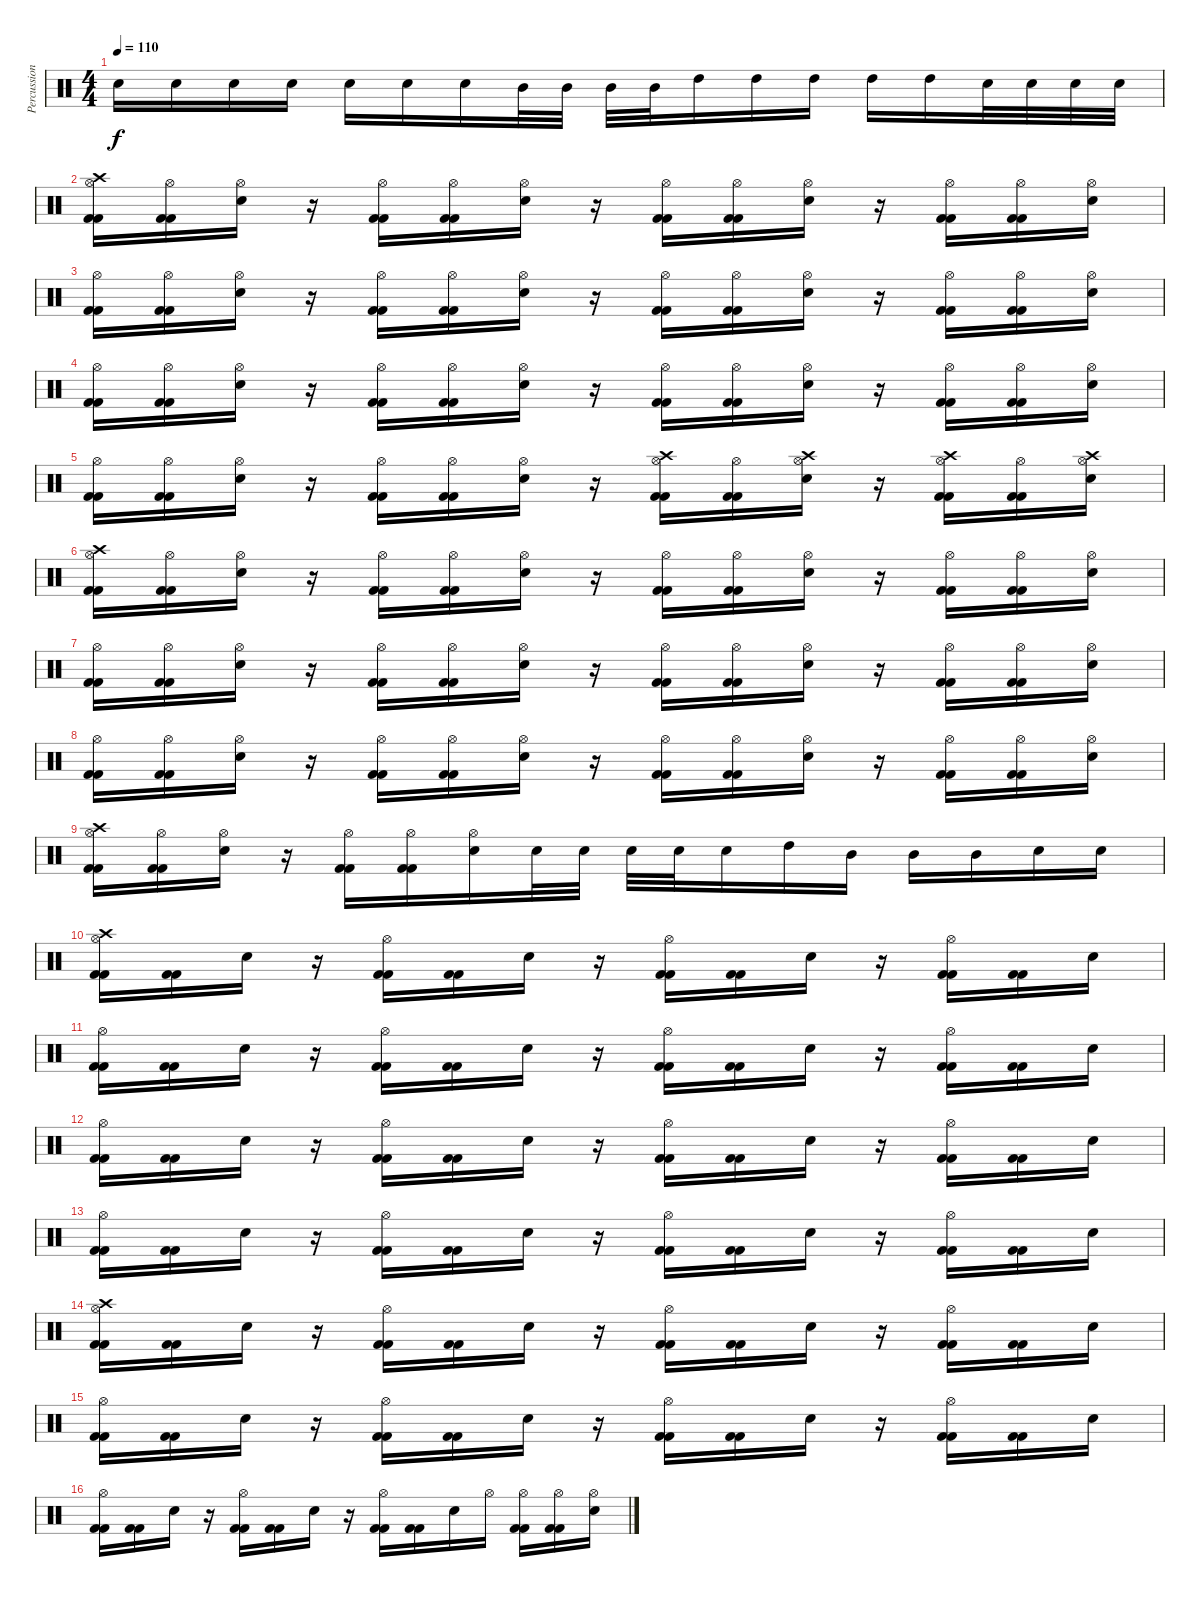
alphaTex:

\track ("Percussions" "Percussion") {instrument percussion}
\staff {score}
\articulation defaults
\ts (4 4)
\tempo 110
\clef neutral
\ks c "Snare (hit) 2".16{dy f volume 16} "Snare (hit) 2".16 "Snare (hit) 2".16 "Snare (hit) 2".16 "Snare (hit) 2".16 "Snare (hit) 2".16 "Snare (hit) 2".16 "Mid Tom (hit)".32 "Mid Tom (hit)".32 "Mid Tom (hit)".32 "Mid Tom (hit)".32 "High Tom (hit)".16 "High Tom (hit)".16 "High Tom (hit)".16 "High Tom (hit)".16 "High Tom (hit)".16 "Snare (hit) 2".32 "Snare (hit) 2".32 "Snare (hit) 2".32 "Snare (hit) 2".32
|
("Crash high (hit)" "Hi-Hat (open)" "Kick (hit) 2" "Kick (hit) 2").16 ("Hi-Hat (open)" "Kick (hit) 2" "Kick (hit) 2").16 ("Hi-Hat (open)" "Snare (hit) 2").16 r.16 ("Hi-Hat (open)" "Kick (hit) 2" "Kick (hit) 2").16 ("Hi-Hat (open)" "Kick (hit) 2" "Kick (hit) 2").16 ("Hi-Hat (open)" "Snare (hit) 2").16 r.16 ("Hi-Hat (open)" "Kick (hit) 2" "Kick (hit) 2").16 ("Hi-Hat (open)" "Kick (hit) 2" "Kick (hit) 2").16 ("Hi-Hat (open)" "Snare (hit) 2").16 r.16 ("Hi-Hat (open)" "Kick (hit) 2" "Kick (hit) 2").16 ("Hi-Hat (open)" "Kick (hit) 2" "Kick (hit) 2").16 ("Hi-Hat (open)" "Snare (hit) 2").16 |
("Hi-Hat (open)" "Kick (hit) 2" "Kick (hit) 2").16 ("Hi-Hat (open)" "Kick (hit) 2" "Kick (hit) 2").16 ("Hi-Hat (open)" "Snare (hit) 2").16 r.16 ("Hi-Hat (open)" "Kick (hit) 2" "Kick (hit) 2").16 ("Hi-Hat (open)" "Kick (hit) 2" "Kick (hit) 2").16 ("Hi-Hat (open)" "Snare (hit) 2").16 r.16 ("Hi-Hat (open)" "Kick (hit) 2" "Kick (hit) 2").16 ("Hi-Hat (open)" "Kick (hit) 2" "Kick (hit) 2").16 ("Hi-Hat (open)" "Snare (hit) 2").16 r.16 ("Hi-Hat (open)" "Kick (hit) 2" "Kick (hit) 2").16 ("Hi-Hat (open)" "Kick (hit) 2" "Kick (hit) 2").16 ("Hi-Hat (open)" "Snare (hit) 2").16 |
("Hi-Hat (open)" "Kick (hit) 2" "Kick (hit) 2").16 ("Hi-Hat (open)" "Kick (hit) 2" "Kick (hit) 2").16 ("Hi-Hat (open)" "Snare (hit) 2").16 r.16 ("Hi-Hat (open)" "Kick (hit) 2" "Kick (hit) 2").16 ("Hi-Hat (open)" "Kick (hit) 2" "Kick (hit) 2").16 ("Hi-Hat (open)" "Snare (hit) 2").16 r.16 ("Hi-Hat (open)" "Kick (hit) 2" "Kick (hit) 2").16 ("Hi-Hat (open)" "Kick (hit) 2" "Kick (hit) 2").16 ("Hi-Hat (open)" "Snare (hit) 2").16 r.16 ("Hi-Hat (open)" "Kick (hit) 2" "Kick (hit) 2").16 ("Hi-Hat (open)" "Kick (hit) 2" "Kick (hit) 2").16 ("Hi-Hat (open)" "Snare (hit) 2").16 |
("Hi-Hat (open)" "Kick (hit) 2" "Kick (hit) 2").16 ("Hi-Hat (open)" "Kick (hit) 2" "Kick (hit) 2").16 ("Hi-Hat (open)" "Snare (hit) 2").16 r.16 ("Hi-Hat (open)" "Kick (hit) 2" "Kick (hit) 2").16 ("Hi-Hat (open)" "Kick (hit) 2" "Kick (hit) 2").16 ("Hi-Hat (open)" "Snare (hit) 2").16 r.16 ("Crash high (hit)" "Hi-Hat (open)" "Kick (hit) 2" "Kick (hit) 2").16 ("Hi-Hat (open)" "Kick (hit) 2" "Kick (hit) 2").16 ("Crash high (hit)" "Hi-Hat (open)" "Snare (hit) 2").16 r.16 ("Crash high (hit)" "Hi-Hat (open)" "Kick (hit) 2" "Kick (hit) 2").16 ("Hi-Hat (open)" "Kick (hit) 2" "Kick (hit) 2").16 ("Crash high (hit)" "Hi-Hat (open)" "Snare (hit) 2").16 |
("Crash high (hit)" "Hi-Hat (open)" "Kick (hit) 2" "Kick (hit) 2").16 ("Hi-Hat (open)" "Kick (hit) 2" "Kick (hit) 2").16 ("Hi-Hat (open)" "Snare (hit) 2").16 r.16 ("Hi-Hat (open)" "Kick (hit) 2" "Kick (hit) 2").16 ("Hi-Hat (open)" "Kick (hit) 2" "Kick (hit) 2").16 ("Hi-Hat (open)" "Snare (hit) 2").16 r.16 ("Hi-Hat (open)" "Kick (hit) 2" "Kick (hit) 2").16 ("Hi-Hat (open)" "Kick (hit) 2" "Kick (hit) 2").16 ("Hi-Hat (open)" "Snare (hit) 2").16 r.16 ("Hi-Hat (open)" "Kick (hit) 2" "Kick (hit) 2").16 ("Hi-Hat (open)" "Kick (hit) 2" "Kick (hit) 2").16 ("Hi-Hat (open)" "Snare (hit) 2").16 |
("Hi-Hat (open)" "Kick (hit) 2" "Kick (hit) 2").16 ("Hi-Hat (open)" "Kick (hit) 2" "Kick (hit) 2").16 ("Hi-Hat (open)" "Snare (hit) 2").16 r.16 ("Hi-Hat (open)" "Kick (hit) 2" "Kick (hit) 2").16 ("Hi-Hat (open)" "Kick (hit) 2" "Kick (hit) 2").16 ("Hi-Hat (open)" "Snare (hit) 2").16 r.16 ("Hi-Hat (open)" "Kick (hit) 2" "Kick (hit) 2").16 ("Hi-Hat (open)" "Kick (hit) 2" "Kick (hit) 2").16 ("Hi-Hat (open)" "Snare (hit) 2").16 r.16 ("Hi-Hat (open)" "Kick (hit) 2" "Kick (hit) 2").16 ("Hi-Hat (open)" "Kick (hit) 2" "Kick (hit) 2").16 ("Hi-Hat (open)" "Snare (hit) 2").16 |
("Hi-Hat (open)" "Kick (hit) 2" "Kick (hit) 2").16 ("Hi-Hat (open)" "Kick (hit) 2" "Kick (hit) 2").16 ("Hi-Hat (open)" "Snare (hit) 2").16 r.16 ("Hi-Hat (open)" "Kick (hit) 2" "Kick (hit) 2").16 ("Hi-Hat (open)" "Kick (hit) 2" "Kick (hit) 2").16 ("Hi-Hat (open)" "Snare (hit) 2").16 r.16 ("Hi-Hat (open)" "Kick (hit) 2" "Kick (hit) 2").16 ("Hi-Hat (open)" "Kick (hit) 2" "Kick (hit) 2").16 ("Hi-Hat (open)" "Snare (hit) 2").16 r.16 ("Hi-Hat (open)" "Kick (hit) 2" "Kick (hit) 2").16 ("Hi-Hat (open)" "Kick (hit) 2" "Kick (hit) 2").16 ("Hi-Hat (open)" "Snare (hit) 2").16 |
("Crash high (hit)" "Hi-Hat (open)" "Kick (hit) 2" "Kick (hit) 2").16 ("Hi-Hat (open)" "Kick (hit) 2" "Kick (hit) 2").16 ("Hi-Hat (open)" "Snare (hit) 2").16 r.16 ("Hi-Hat (open)" "Kick (hit) 2" "Kick (hit) 2").16 ("Hi-Hat (open)" "Kick (hit) 2" "Kick (hit) 2").16 ("Hi-Hat (open)" "Snare (hit) 2").16 "Snare (hit) 2".32 "Snare (hit) 2".32 "Snare (hit) 2".32 "Snare (hit) 2".32 "Snare (hit) 2".16 "High Tom (hit)".16 "Mid Tom (hit)".16 "Mid Tom (hit)".16 "Mid Tom (hit)".16 "Snare (hit) 2".16 "Snare (hit) 2".16 |
("Crash high (hit)" "Hi-Hat (open)" "Kick (hit) 2" "Kick (hit) 2").16 ("Kick (hit) 2" "Kick (hit) 2").16 "Snare (hit) 2".16 r.16 ("Hi-Hat (open)" "Kick (hit) 2" "Kick (hit) 2").16 ("Kick (hit) 2" "Kick (hit) 2").16 "Snare (hit) 2".16 r.16 ("Hi-Hat (open)" "Kick (hit) 2" "Kick (hit) 2").16 ("Kick (hit) 2" "Kick (hit) 2").16 "Snare (hit) 2".16 r.16 ("Hi-Hat (open)" "Kick (hit) 2" "Kick (hit) 2").16 ("Kick (hit) 2" "Kick (hit) 2").16 "Snare (hit) 2".16 |
("Hi-Hat (open)" "Kick (hit) 2" "Kick (hit) 2").16 ("Kick (hit) 2" "Kick (hit) 2").16 "Snare (hit) 2".16 r.16 ("Hi-Hat (open)" "Kick (hit) 2" "Kick (hit) 2").16 ("Kick (hit) 2" "Kick (hit) 2").16 "Snare (hit) 2".16 r.16 ("Hi-Hat (open)" "Kick (hit) 2" "Kick (hit) 2").16 ("Kick (hit) 2" "Kick (hit) 2").16 "Snare (hit) 2".16 r.16 ("Hi-Hat (open)" "Kick (hit) 2" "Kick (hit) 2").16 ("Kick (hit) 2" "Kick (hit) 2").16 "Snare (hit) 2".16 |
("Hi-Hat (open)" "Kick (hit) 2" "Kick (hit) 2").16 ("Kick (hit) 2" "Kick (hit) 2").16 "Snare (hit) 2".16 r.16 ("Hi-Hat (open)" "Kick (hit) 2" "Kick (hit) 2").16 ("Kick (hit) 2" "Kick (hit) 2").16 "Snare (hit) 2".16 r.16 ("Hi-Hat (open)" "Kick (hit) 2" "Kick (hit) 2").16 ("Kick (hit) 2" "Kick (hit) 2").16 "Snare (hit) 2".16 r.16 ("Hi-Hat (open)" "Kick (hit) 2" "Kick (hit) 2").16 ("Kick (hit) 2" "Kick (hit) 2").16 "Snare (hit) 2".16 |
("Hi-Hat (open)" "Kick (hit) 2" "Kick (hit) 2").16 ("Kick (hit) 2" "Kick (hit) 2").16 "Snare (hit) 2".16 r.16 ("Hi-Hat (open)" "Kick (hit) 2" "Kick (hit) 2").16 ("Kick (hit) 2" "Kick (hit) 2").16 "Snare (hit) 2".16 r.16 ("Hi-Hat (open)" "Kick (hit) 2" "Kick (hit) 2").16 ("Kick (hit) 2" "Kick (hit) 2").16 "Snare (hit) 2".16 r.16 ("Hi-Hat (open)" "Kick (hit) 2" "Kick (hit) 2").16 ("Kick (hit) 2" "Kick (hit) 2").16 "Snare (hit) 2".16 |
("Crash high (hit)" "Hi-Hat (open)" "Kick (hit) 2" "Kick (hit) 2").16 ("Kick (hit) 2" "Kick (hit) 2").16 "Snare (hit) 2".16 r.16 ("Hi-Hat (open)" "Kick (hit) 2" "Kick (hit) 2").16 ("Kick (hit) 2" "Kick (hit) 2").16 "Snare (hit) 2".16 r.16 ("Hi-Hat (open)" "Kick (hit) 2" "Kick (hit) 2").16 ("Kick (hit) 2" "Kick (hit) 2").16 "Snare (hit) 2".16 r.16 ("Hi-Hat (open)" "Kick (hit) 2" "Kick (hit) 2").16 ("Kick (hit) 2" "Kick (hit) 2").16 "Snare (hit) 2".16 |
("Hi-Hat (open)" "Kick (hit) 2" "Kick (hit) 2").16 ("Kick (hit) 2" "Kick (hit) 2").16 "Snare (hit) 2".16 r.16 ("Hi-Hat (open)" "Kick (hit) 2" "Kick (hit) 2").16 ("Kick (hit) 2" "Kick (hit) 2").16 "Snare (hit) 2".16 r.16 ("Hi-Hat (open)" "Kick (hit) 2" "Kick (hit) 2").16 ("Kick (hit) 2" "Kick (hit) 2").16 "Snare (hit) 2".16 r.16 ("Hi-Hat (open)" "Kick (hit) 2" "Kick (hit) 2").16 ("Kick (hit) 2" "Kick (hit) 2").16 "Snare (hit) 2".16 |
("Hi-Hat (open)" "Kick (hit) 2" "Kick (hit) 2").16 ("Kick (hit) 2" "Kick (hit) 2").16 "Snare (hit) 2".16 r.16 ("Hi-Hat (open)" "Kick (hit) 2" "Kick (hit) 2").16 ("Kick (hit) 2" "Kick (hit) 2").16 "Snare (hit) 2".16 r.16 ("Hi-Hat (open)" "Kick (hit) 2" "Kick (hit) 2").16 ("Kick (hit) 2" "Kick (hit) 2").16 "Snare (hit) 2".16 "Hi-Hat (open)".16 ("Hi-Hat (open)" "Kick (hit) 2" "Kick (hit) 2").16 ("Hi-Hat (open)" "Kick (hit) 2" "Kick (hit) 2").16 ("Hi-Hat (open)" "Snare (hit) 2").16
